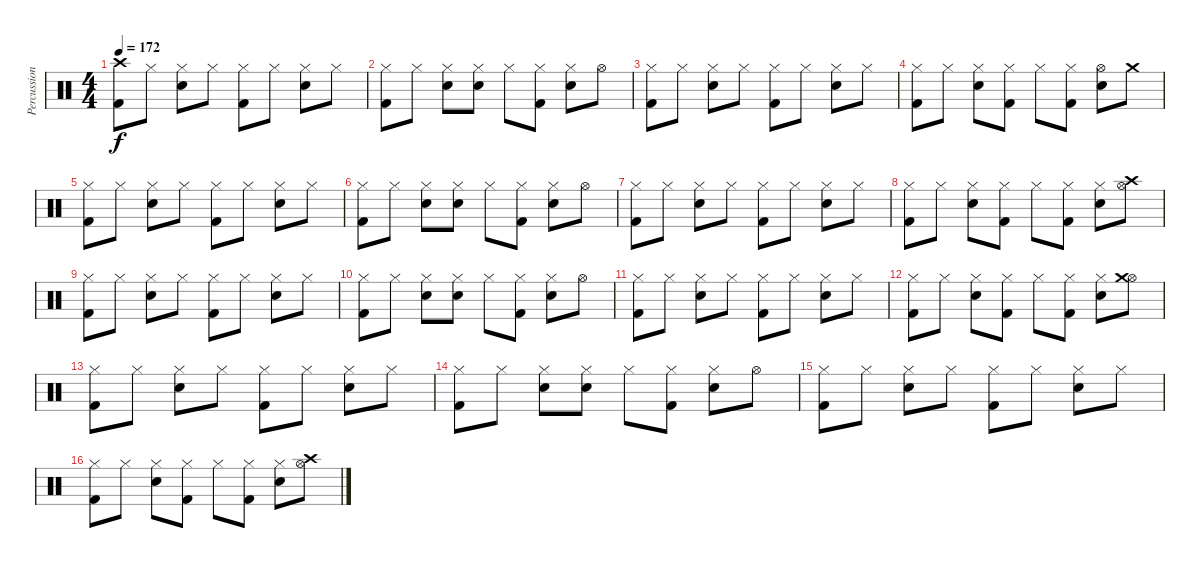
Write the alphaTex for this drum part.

\track ("Percussions" "Percussion") {instrument percussion}
\staff {score}
\articulation defaults
\ts (4 4)
\tempo 172
\clef neutral
\ks c
("Crash high (hit)" "Kick (hit) 2").8{dy f} "Hi-Hat (closed)".8 ("Hi-Hat (closed)" "Electric Snare (hit)").8 "Hi-Hat (closed)".8 ("Hi-Hat (closed)" "Kick (hit) 2").8 "Hi-Hat (closed)".8 ("Hi-Hat (closed)" "Electric Snare (hit)").8 "Hi-Hat (closed)".8 |
("Hi-Hat (closed)" "Kick (hit) 2").8 "Hi-Hat (closed)".8 ("Hi-Hat (closed)" "Electric Snare (hit)").8 ("Hi-Hat (closed)" "Electric Snare (hit)").8 "Hi-Hat (closed)".8 ("Hi-Hat (closed)" "Kick (hit) 2").8 ("Hi-Hat (closed)" "Electric Snare (hit)").8 "Hi-Hat (open)".8 |
("Hi-Hat (closed)" "Kick (hit) 2").8 "Hi-Hat (closed)".8 ("Hi-Hat (closed)" "Electric Snare (hit)").8 "Hi-Hat (closed)".8 ("Hi-Hat (closed)" "Kick (hit) 2").8 "Hi-Hat (closed)".8 ("Hi-Hat (closed)" "Electric Snare (hit)").8 "Hi-Hat (closed)".8 |
("Hi-Hat (closed)" "Kick (hit) 2").8 "Hi-Hat (closed)".8 ("Hi-Hat (closed)" "Electric Snare (hit)").8 ("Hi-Hat (closed)" "Kick (hit) 2").8 "Hi-Hat (closed)".8 ("Hi-Hat (closed)" "Kick (hit) 2").8 ("Hi-Hat (open)" "Electric Snare (hit)").8 "Crash medium (hit)".8 |
("Hi-Hat (closed)" "Kick (hit) 2").8 "Hi-Hat (closed)".8 ("Hi-Hat (closed)" "Electric Snare (hit)").8 "Hi-Hat (closed)".8 ("Hi-Hat (closed)" "Kick (hit) 2").8 "Hi-Hat (closed)".8 ("Hi-Hat (closed)" "Electric Snare (hit)").8 "Hi-Hat (closed)".8 |
("Hi-Hat (closed)" "Kick (hit) 2").8 "Hi-Hat (closed)".8 ("Hi-Hat (closed)" "Electric Snare (hit)").8 ("Hi-Hat (closed)" "Electric Snare (hit)").8 "Hi-Hat (closed)".8 ("Hi-Hat (closed)" "Kick (hit) 2").8 ("Hi-Hat (closed)" "Electric Snare (hit)").8 "Hi-Hat (open)".8 |
("Hi-Hat (closed)" "Kick (hit) 2").8 "Hi-Hat (closed)".8 ("Hi-Hat (closed)" "Electric Snare (hit)").8 "Hi-Hat (closed)".8 ("Hi-Hat (closed)" "Kick (hit) 2").8 "Hi-Hat (closed)".8 ("Hi-Hat (closed)" "Electric Snare (hit)").8 "Hi-Hat (closed)".8 |
("Hi-Hat (closed)" "Kick (hit) 2").8 "Hi-Hat (closed)".8 ("Hi-Hat (closed)" "Electric Snare (hit)").8 ("Hi-Hat (closed)" "Kick (hit) 2").8 "Hi-Hat (closed)".8 ("Hi-Hat (closed)" "Kick (hit) 2").8 ("Hi-Hat (closed)" "Electric Snare (hit)").8 ("Hi-Hat (open)" "Crash high (hit)").8 |
("Hi-Hat (closed)" "Kick (hit) 2").8 "Hi-Hat (closed)".8 ("Hi-Hat (closed)" "Electric Snare (hit)").8 "Hi-Hat (closed)".8 ("Hi-Hat (closed)" "Kick (hit) 2").8 "Hi-Hat (closed)".8 ("Hi-Hat (closed)" "Electric Snare (hit)").8 "Hi-Hat (closed)".8 |
("Hi-Hat (closed)" "Kick (hit) 2").8 "Hi-Hat (closed)".8 ("Hi-Hat (closed)" "Electric Snare (hit)").8 ("Hi-Hat (closed)" "Electric Snare (hit)").8 "Hi-Hat (closed)".8 ("Hi-Hat (closed)" "Kick (hit) 2").8 ("Hi-Hat (closed)" "Electric Snare (hit)").8 "Hi-Hat (open)".8 |
("Hi-Hat (closed)" "Kick (hit) 2").8 "Hi-Hat (closed)".8 ("Hi-Hat (closed)" "Electric Snare (hit)").8 "Hi-Hat (closed)".8 ("Hi-Hat (closed)" "Kick (hit) 2").8 "Hi-Hat (closed)".8 ("Hi-Hat (closed)" "Electric Snare (hit)").8 "Hi-Hat (closed)".8 |
("Hi-Hat (closed)" "Kick (hit) 2").8 "Hi-Hat (closed)".8 ("Hi-Hat (closed)" "Electric Snare (hit)").8 ("Hi-Hat (closed)" "Kick (hit) 2").8 "Hi-Hat (closed)".8 ("Hi-Hat (closed)" "Kick (hit) 2").8 ("Hi-Hat (closed)" "Electric Snare (hit)").8 ("Hi-Hat (open)" "Crash medium (hit)").8 |
("Hi-Hat (closed)" "Kick (hit) 2").8 "Hi-Hat (closed)".8 ("Hi-Hat (closed)" "Electric Snare (hit)").8 "Hi-Hat (closed)".8 ("Hi-Hat (closed)" "Kick (hit) 2").8 "Hi-Hat (closed)".8 ("Hi-Hat (closed)" "Electric Snare (hit)").8 "Hi-Hat (closed)".8 |
("Hi-Hat (closed)" "Kick (hit) 2").8 "Hi-Hat (closed)".8 ("Hi-Hat (closed)" "Electric Snare (hit)").8 ("Hi-Hat (closed)" "Electric Snare (hit)").8 "Hi-Hat (closed)".8 ("Hi-Hat (closed)" "Kick (hit) 2").8 ("Hi-Hat (closed)" "Electric Snare (hit)").8 "Hi-Hat (open)".8 |
("Hi-Hat (closed)" "Kick (hit) 2").8 "Hi-Hat (closed)".8 ("Hi-Hat (closed)" "Electric Snare (hit)").8 "Hi-Hat (closed)".8 ("Hi-Hat (closed)" "Kick (hit) 2").8 "Hi-Hat (closed)".8 ("Hi-Hat (closed)" "Electric Snare (hit)").8 "Hi-Hat (closed)".8 |
("Hi-Hat (closed)" "Kick (hit) 2").8 "Hi-Hat (closed)".8 ("Hi-Hat (closed)" "Electric Snare (hit)").8 ("Hi-Hat (closed)" "Kick (hit) 2").8 "Hi-Hat (closed)".8 ("Hi-Hat (closed)" "Kick (hit) 2").8 ("Hi-Hat (closed)" "Electric Snare (hit)").8 ("Hi-Hat (open)" "Crash high (hit)").8
